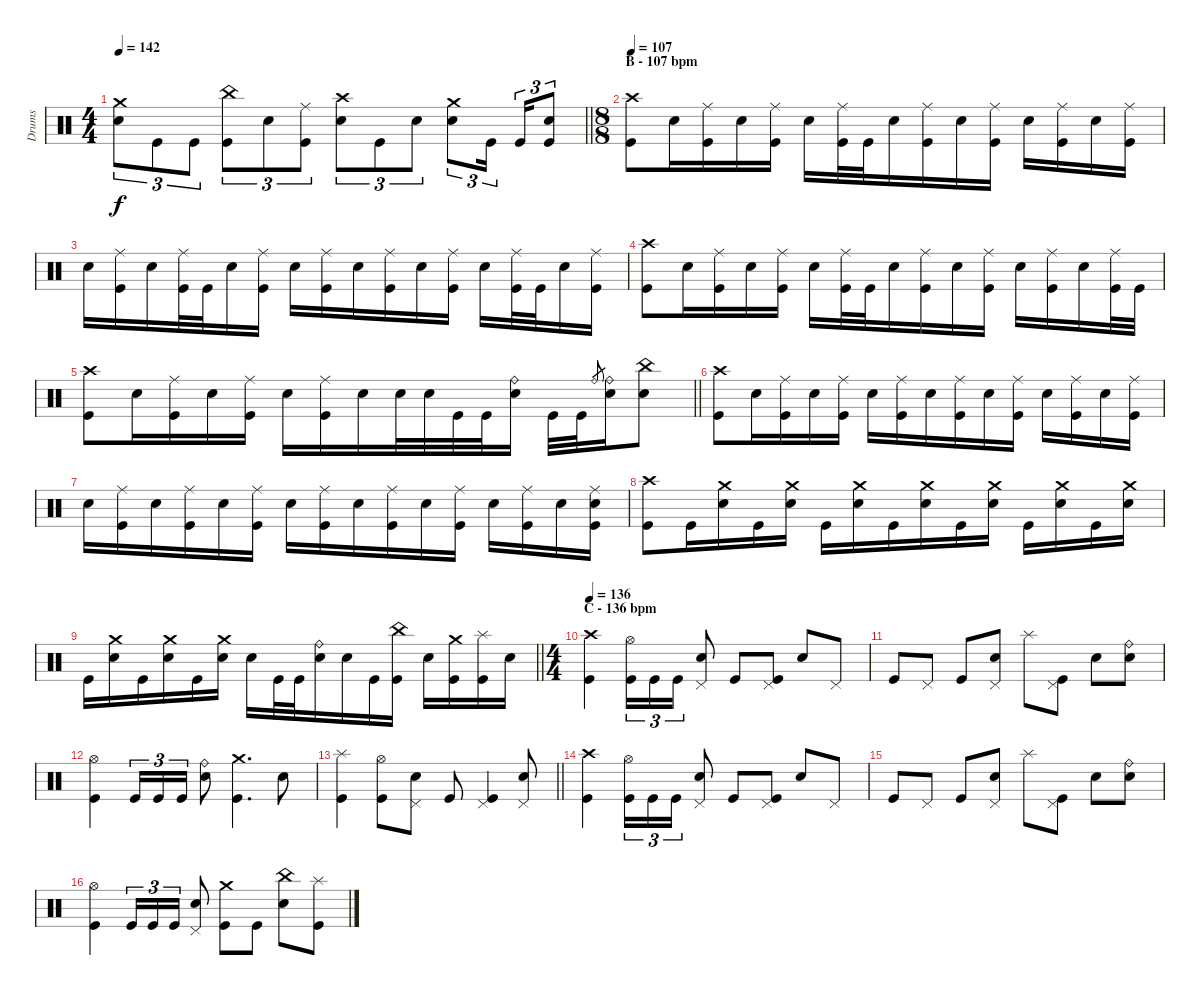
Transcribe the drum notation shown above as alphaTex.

\track ("Drums" "Drums") {instrument percussion}
\staff
\articulation defaults
\ts (4 4)
\tempo 142
\clef neutral
\barLineRight lightlight
\ks c
("Crash medium (hit)" "Electric Snare (hit)").8{tu (3 2) dy f} "Kick (hit)".8{tu (3 2)} "Kick (hit)".8{tu (3 2)} ("China (hit)" "Kick (hit)").8{tu (3 2)} "Electric Snare (hit)".8{tu (3 2)} ("Ride (middle)" "Kick (hit)").8{tu (3 2)} ("Crash high (hit)" "Electric Snare (hit)").8{tu (3 2)} "Kick (hit)".8{tu (3 2)} "Electric Snare (hit)".8{tu (3 2)} ("Crash medium (hit)" "Electric Snare (hit)").8{tu (3 2)} "Kick (hit)".16{tu (3 2) beam splitsecondary} "Kick (hit)".16{tu (3 2)} ("Electric Snare (hit)" "Kick (hit)").8{tu (3 2)} |
\ts (8 8)
\section ("" "B - 107 bpm")
\tempo 107
("Crash high (hit)" "Kick (hit)").8 "Electric Snare (hit)".16 ("Ride (middle)" "Kick (hit)").16 "Electric Snare (hit)".16 ("Ride (middle)" "Kick (hit)").16 "Electric Snare (hit)".16 ("Ride (middle)" "Kick (hit)").32 "Kick (hit)".32 "Electric Snare (hit)".16 ("Ride (middle)" "Kick (hit)").16 "Electric Snare (hit)".16 ("Ride (middle)" "Kick (hit)").16 "Electric Snare (hit)".16 ("Ride (middle)" "Kick (hit)").16 "Electric Snare (hit)".16 ("Ride (middle)" "Kick (hit)").16 |
"Electric Snare (hit)".16 ("Ride (middle)" "Kick (hit)").16 "Electric Snare (hit)".16 ("Ride (middle)" "Kick (hit)").32 "Kick (hit)".32 "Electric Snare (hit)".16 ("Ride (middle)" "Kick (hit)").16 "Electric Snare (hit)".16 ("Ride (middle)" "Kick (hit)").16 "Electric Snare (hit)".16 ("Ride (middle)" "Kick (hit)").16 "Electric Snare (hit)".16 ("Ride (middle)" "Kick (hit)").16 "Electric Snare (hit)".16 ("Ride (middle)" "Kick (hit)").32 "Kick (hit)".32 "Electric Snare (hit)".16 ("Ride (middle)" "Kick (hit)").16 |
("Crash high (hit)" "Kick (hit)").8 "Electric Snare (hit)".16 ("Ride (middle)" "Kick (hit)").16 "Electric Snare (hit)".16 ("Ride (middle)" "Kick (hit)").16 "Electric Snare (hit)".16 ("Ride (middle)" "Kick (hit)").32 "Kick (hit)".32 "Electric Snare (hit)".16 ("Ride (middle)" "Kick (hit)").16 "Electric Snare (hit)".16 ("Ride (middle)" "Kick (hit)").16 "Electric Snare (hit)".16 ("Ride (middle)" "Kick (hit)").16 "Electric Snare (hit)".16 ("Ride (middle)" "Kick (hit)").32 "Kick (hit)".32 |
\barLineRight lightlight
("Crash high (hit)" "Kick (hit)").8 "Electric Snare (hit)".16 ("Ride (middle)" "Kick (hit)").16 "Electric Snare (hit)".16 ("Ride (middle)" "Kick (hit)").16 "Electric Snare (hit)".16 ("Ride (middle)" "Kick (hit)").16 "Electric Snare (hit)".16 "Electric Snare (hit)".32 "Electric Snare (hit)".32 "Kick (hit)".32 "Kick (hit)".32 ("Ride (bell)" "Electric Snare (hit)").16 "Kick (hit)".32 "Kick (hit)".32 "Ride (bell)".8{gr} ("Ride (bell)" "Electric Snare (hit)").16 ("China (hit)" "Electric Snare (hit)").8 |
("Crash high (hit)" "Kick (hit)").8 "Electric Snare (hit)".16 ("Ride (middle)" "Kick (hit)").16 "Electric Snare (hit)".16 ("Ride (middle)" "Kick (hit)").16 "Electric Snare (hit)".16 ("Ride (middle)" "Kick (hit)").16 "Electric Snare (hit)".16 ("Ride (middle)" "Kick (hit)").16 "Electric Snare (hit)".16 ("Ride (middle)" "Kick (hit)").16 "Electric Snare (hit)".16 ("Ride (middle)" "Kick (hit)").16 "Electric Snare (hit)".16 ("Ride (middle)" "Kick (hit)").16 |
"Electric Snare (hit)".16 ("Ride (middle)" "Kick (hit)").16 "Electric Snare (hit)".16 ("Ride (middle)" "Kick (hit)").16 "Electric Snare (hit)".16 ("Ride (middle)" "Kick (hit)").16 "Electric Snare (hit)".16 ("Ride (middle)" "Kick (hit)").16 "Electric Snare (hit)".16 ("Ride (middle)" "Kick (hit)").16 "Electric Snare (hit)".16 ("Ride (middle)" "Kick (hit)").16 "Electric Snare (hit)".16 ("Ride (middle)" "Kick (hit)").16 "Electric Snare (hit)".16 ("Ride (middle)" "Electric Snare (hit)" "Kick (hit)").16 |
("Crash high (hit)" "Kick (hit)").8 "Kick (hit)".16 ("Crash medium (hit)" "Electric Snare (hit)").16 "Kick (hit)".16 ("Crash medium (hit)" "Electric Snare (hit)").16 "Kick (hit)".16 ("Crash medium (hit)" "Electric Snare (hit)").16 "Kick (hit)".16 ("Crash medium (hit)" "Electric Snare (hit)").16 "Kick (hit)".16 ("Crash medium (hit)" "Electric Snare (hit)").16 "Kick (hit)".16 ("Crash medium (hit)" "Electric Snare (hit)").16 "Kick (hit)".16 ("Crash medium (hit)" "Electric Snare (hit)").16 |
\barLineRight lightlight "Kick (hit)".16
("Crash medium (hit)" "Electric Snare (hit)").16 "Kick (hit)".16 ("Crash medium (hit)" "Electric Snare (hit)").16 "Kick (hit)".16 ("Crash medium (hit)" "Electric Snare (hit)").16 "Electric Snare (hit)".16 "Kick (hit)".32 "Kick (hit)".32 ("Ride (bell)" "Electric Snare (hit)").16 "Electric Snare (hit)".16 "Kick (hit)".16 ("China (hit)" "Kick (hit)").16 "Electric Snare (hit)".16 ("Crash medium (hit)" "Kick (hit)").16 ("Splash (hit)" "Kick (hit)").16 "Electric Snare (hit)".16 |
\ts (4 4)
\section ("" "C - 136 bpm")
\tempo 136
("Crash high (hit)" "Kick (hit)").4 ("Hi-Hat (open)" "Kick (hit)").16{tu (3 2)} "Kick (hit)".16{tu (3 2)} "Kick (hit)".16{tu (3 2)} ("Pedal Hi-Hat (hit)" "Electric Snare (hit)").8 "Kick (hit)".8 ("Pedal Hi-Hat (hit)" "Kick (hit)").8 "Electric Snare (hit)".8 "Pedal Hi-Hat (hit)".8 |
"Kick (hit)".8 "Pedal Hi-Hat (hit)".8 "Kick (hit)".8 ("Pedal Hi-Hat (hit)" "Electric Snare (hit)").8 "Splash (hit)".8 ("Pedal Hi-Hat (hit)" "Kick (hit)").8 "Electric Snare (hit)".8 ("Ride (bell)" "Electric Snare (hit)").8 |
("Hi-Hat (open)" "Kick (hit)").4 "Kick (hit)".16{tu (3 2)} "Kick (hit)".16{tu (3 2)} "Kick (hit)".16{tu (3 2)} ("Ride (bell)" "Electric Snare (hit)").8 ("Crash medium (hit)" "Kick (hit)").4{d} "Electric Snare (hit)".8 |
\barLineRight lightlight
("Splash (hit)" "Kick (hit)").4 ("Hi-Hat (open)" "Kick (hit)").8 ("Pedal Hi-Hat (hit)" "Electric Snare (hit)").8 "Kick (hit)".8 ("Pedal Hi-Hat (hit)" "Kick (hit)").4 ("Pedal Hi-Hat (hit)" "Electric Snare (hit)").8 |
("Crash high (hit)" "Kick (hit)").4 ("Hi-Hat (open)" "Kick (hit)").16{tu (3 2)} "Kick (hit)".16{tu (3 2)} "Kick (hit)".16{tu (3 2)} ("Pedal Hi-Hat (hit)" "Electric Snare (hit)").8 "Kick (hit)".8 ("Pedal Hi-Hat (hit)" "Kick (hit)").8 "Electric Snare (hit)".8 "Pedal Hi-Hat (hit)".8 |
"Kick (hit)".8 "Pedal Hi-Hat (hit)".8 "Kick (hit)".8 ("Pedal Hi-Hat (hit)" "Electric Snare (hit)").8 "Splash (hit)".8 ("Pedal Hi-Hat (hit)" "Kick (hit)").8 "Electric Snare (hit)".8 ("Ride (bell)" "Electric Snare (hit)").8 |
("Hi-Hat (open)" "Kick (hit)").4 "Kick (hit)".16{tu (3 2)} "Kick (hit)".16{tu (3 2)} "Kick (hit)".16{tu (3 2)} ("Pedal Hi-Hat (hit)" "Electric Snare (hit)").8 ("Crash medium (hit)" "Kick (hit)").8 "Kick (hit)".8 ("China (hit)" "Electric Snare (hit)").8 ("Splash (hit)" "Kick (hit)").8
